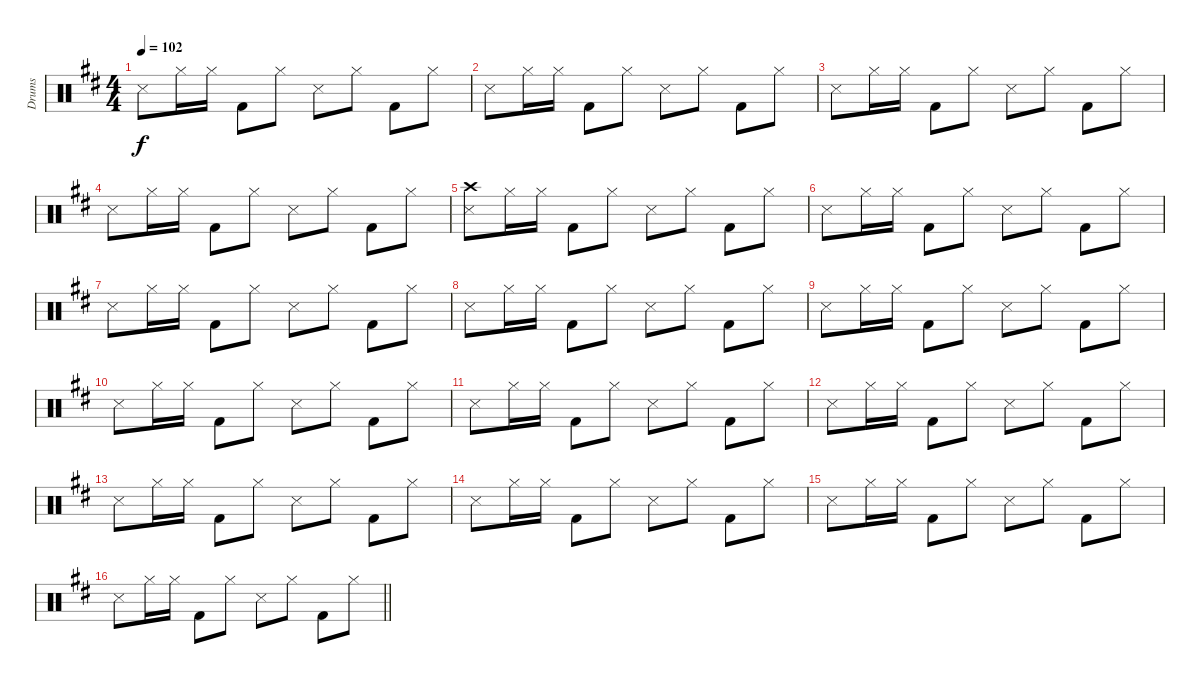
\track ("Drums" "Drums") {instrument percussion}
\staff {score}
\articulation defaults
\ts (4 4)
\tempo 102
\clef neutral
\ks d "Snare (side stick) 3".8{dy f} "Hi-Hat (closed)".16 "Hi-Hat (closed)".16 "Kick (hit) 2".8 "Hi-Hat (closed)".8 "Snare (side stick) 3".8 "Hi-Hat (closed)".8 "Kick (hit) 2".8 "Hi-Hat (closed)".8
|
"Snare (side stick) 3".8 "Hi-Hat (closed)".16 "Hi-Hat (closed)".16 "Kick (hit) 2".8 "Hi-Hat (closed)".8 "Snare (side stick) 3".8 "Hi-Hat (closed)".8 "Kick (hit) 2".8 "Hi-Hat (closed)".8 |
"Snare (side stick) 3".8 "Hi-Hat (closed)".16 "Hi-Hat (closed)".16 "Kick (hit) 2".8 "Hi-Hat (closed)".8 "Snare (side stick) 3".8 "Hi-Hat (closed)".8 "Kick (hit) 2".8 "Hi-Hat (closed)".8 |
"Snare (side stick) 3".8 "Hi-Hat (closed)".16 "Hi-Hat (closed)".16 "Kick (hit) 2".8 "Hi-Hat (closed)".8 "Snare (side stick) 3".8 "Hi-Hat (closed)".8 "Kick (hit) 2".8 "Hi-Hat (closed)".8 |
("Snare (side stick) 3" "Crash high (hit)").8 "Hi-Hat (closed)".16 "Hi-Hat (closed)".16 "Kick (hit) 2".8 "Hi-Hat (closed)".8 "Snare (side stick) 3".8 "Hi-Hat (closed)".8 "Kick (hit) 2".8 "Hi-Hat (closed)".8 |
"Snare (side stick) 3".8 "Hi-Hat (closed)".16 "Hi-Hat (closed)".16 "Kick (hit) 2".8 "Hi-Hat (closed)".8 "Snare (side stick) 3".8 "Hi-Hat (closed)".8 "Kick (hit) 2".8 "Hi-Hat (closed)".8 |
"Snare (side stick) 3".8 "Hi-Hat (closed)".16 "Hi-Hat (closed)".16 "Kick (hit) 2".8 "Hi-Hat (closed)".8 "Snare (side stick) 3".8 "Hi-Hat (closed)".8 "Kick (hit) 2".8 "Hi-Hat (closed)".8 |
"Snare (side stick) 3".8 "Hi-Hat (closed)".16 "Hi-Hat (closed)".16 "Kick (hit) 2".8 "Hi-Hat (closed)".8 "Snare (side stick) 3".8 "Hi-Hat (closed)".8 "Kick (hit) 2".8 "Hi-Hat (closed)".8 |
"Snare (side stick) 3".8 "Hi-Hat (closed)".16 "Hi-Hat (closed)".16 "Kick (hit) 2".8 "Hi-Hat (closed)".8 "Snare (side stick) 3".8 "Hi-Hat (closed)".8 "Kick (hit) 2".8 "Hi-Hat (closed)".8 |
"Snare (side stick) 3".8 "Hi-Hat (closed)".16 "Hi-Hat (closed)".16 "Kick (hit) 2".8 "Hi-Hat (closed)".8 "Snare (side stick) 3".8 "Hi-Hat (closed)".8 "Kick (hit) 2".8 "Hi-Hat (closed)".8 |
"Snare (side stick) 3".8 "Hi-Hat (closed)".16 "Hi-Hat (closed)".16 "Kick (hit) 2".8 "Hi-Hat (closed)".8 "Snare (side stick) 3".8 "Hi-Hat (closed)".8 "Kick (hit) 2".8 "Hi-Hat (closed)".8 |
"Snare (side stick) 3".8 "Hi-Hat (closed)".16 "Hi-Hat (closed)".16 "Kick (hit) 2".8 "Hi-Hat (closed)".8 "Snare (side stick) 3".8 "Hi-Hat (closed)".8 "Kick (hit) 2".8 "Hi-Hat (closed)".8 |
"Snare (side stick) 3".8 "Hi-Hat (closed)".16 "Hi-Hat (closed)".16 "Kick (hit) 2".8 "Hi-Hat (closed)".8 "Snare (side stick) 3".8 "Hi-Hat (closed)".8 "Kick (hit) 2".8 "Hi-Hat (closed)".8 |
"Snare (side stick) 3".8 "Hi-Hat (closed)".16 "Hi-Hat (closed)".16 "Kick (hit) 2".8 "Hi-Hat (closed)".8 "Snare (side stick) 3".8 "Hi-Hat (closed)".8 "Kick (hit) 2".8 "Hi-Hat (closed)".8 |
"Snare (side stick) 3".8 "Hi-Hat (closed)".16 "Hi-Hat (closed)".16 "Kick (hit) 2".8 "Hi-Hat (closed)".8 "Snare (side stick) 3".8 "Hi-Hat (closed)".8 "Kick (hit) 2".8 "Hi-Hat (closed)".8 |
\barLineRight lightlight "Snare (side stick) 3".8 "Hi-Hat (closed)".16 "Hi-Hat (closed)".16 "Kick (hit) 2".8 "Hi-Hat (closed)".8 "Snare (side stick) 3".8 "Hi-Hat (closed)".8 "Kick (hit) 2".8 "Hi-Hat (closed)".8
